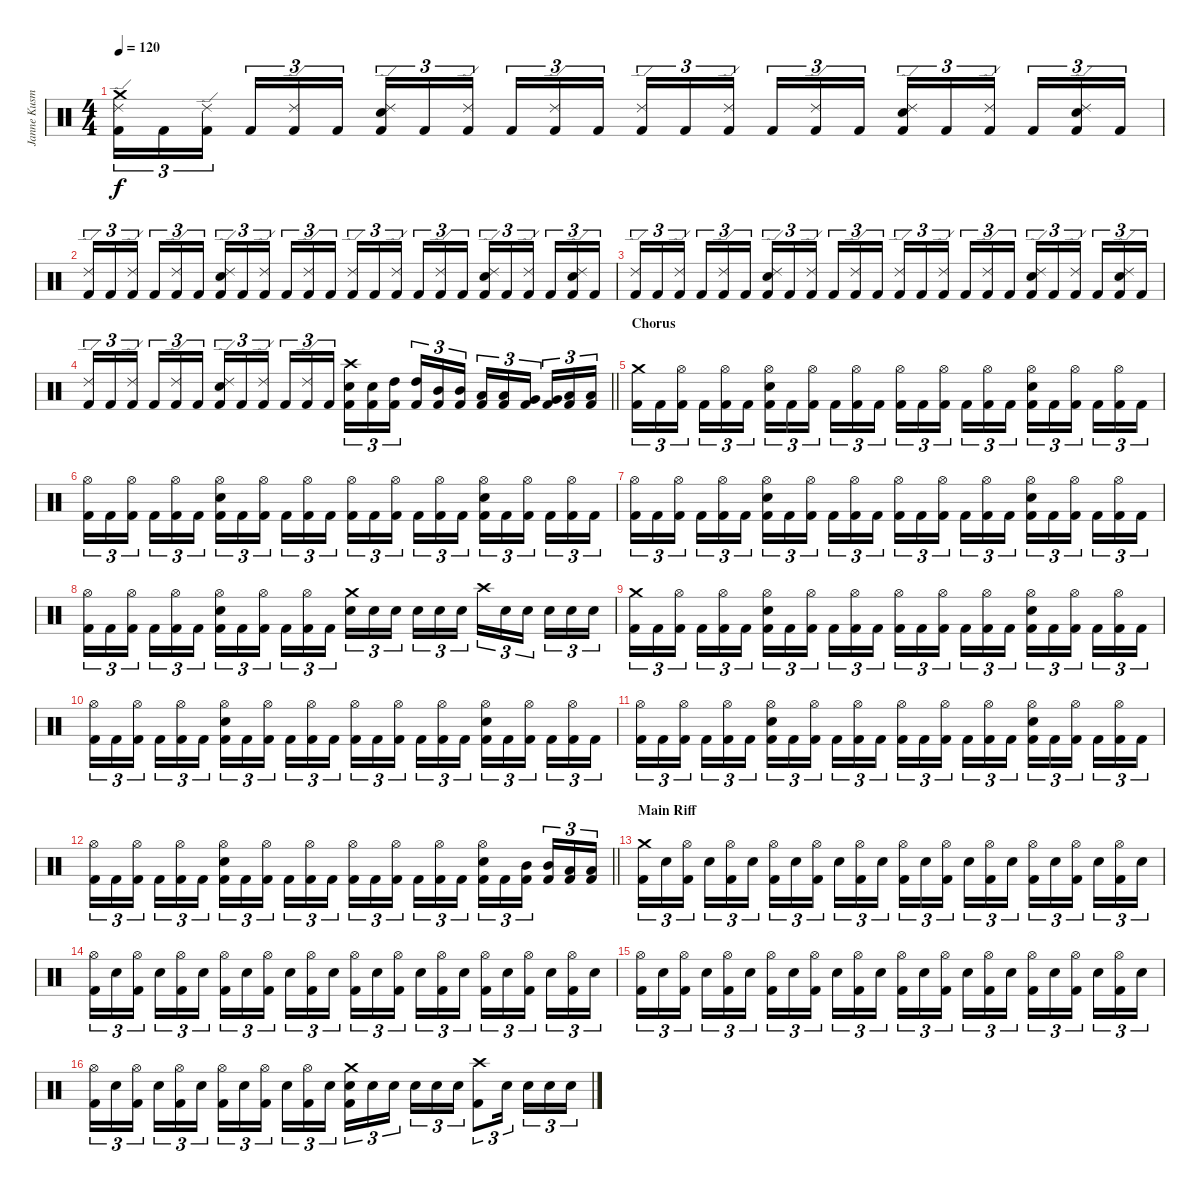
\track ("Janne Kusmin" "Janne Kusm") {instrument percussion}
\staff {score}
\articulation defaults
\ts (4 4)
\tempo 120
\clef neutral
\ks c
("Crash medium (hit)" "Ride (edge) 2" "Kick (hit) 2").16{tu (3 2) dy f} "Kick (hit) 2".16{tu (3 2)} ("Ride (edge) 2" "Kick (hit) 2").16{tu (3 2) beam splitsecondary} "Kick (hit) 2".16{tu (3 2)} ("Ride (edge) 2" "Kick (hit) 2").16{tu (3 2)} "Kick (hit) 2".16{tu (3 2)} ("Ride (edge) 2" "Snare (hit) 2" "Kick (hit) 2").16{tu (3 2)} "Kick (hit) 2".16{tu (3 2)} ("Ride (edge) 2" "Kick (hit) 2").16{tu (3 2) beam splitsecondary} "Kick (hit) 2".16{tu (3 2)} ("Ride (edge) 2" "Kick (hit) 2").16{tu (3 2)} "Kick (hit) 2".16{tu (3 2)} ("Ride (edge) 2" "Kick (hit) 2").16{tu (3 2)} "Kick (hit) 2".16{tu (3 2)} ("Ride (edge) 2" "Kick (hit) 2").16{tu (3 2) beam splitsecondary} "Kick (hit) 2".16{tu (3 2)} ("Ride (edge) 2" "Kick (hit) 2").16{tu (3 2)} "Kick (hit) 2".16{tu (3 2)} ("Ride (edge) 2" "Snare (hit) 2" "Kick (hit) 2").16{tu (3 2)} "Kick (hit) 2".16{tu (3 2)} ("Ride (edge) 2" "Kick (hit) 2").16{tu (3 2) beam splitsecondary} "Kick (hit) 2".16{tu (3 2)} ("Ride (edge) 2" "Snare (hit) 2" "Kick (hit) 2").16{tu (3 2)} "Kick (hit) 2".16{tu (3 2)} |
("Ride (edge) 2" "Kick (hit) 2").16{tu (3 2)} "Kick (hit) 2".16{tu (3 2)} ("Ride (edge) 2" "Kick (hit) 2").16{tu (3 2) beam splitsecondary} "Kick (hit) 2".16{tu (3 2)} ("Ride (edge) 2" "Kick (hit) 2").16{tu (3 2)} "Kick (hit) 2".16{tu (3 2)} ("Ride (edge) 2" "Snare (hit) 2" "Kick (hit) 2").16{tu (3 2)} "Kick (hit) 2".16{tu (3 2)} ("Ride (edge) 2" "Kick (hit) 2").16{tu (3 2) beam splitsecondary} "Kick (hit) 2".16{tu (3 2)} ("Ride (edge) 2" "Kick (hit) 2").16{tu (3 2)} "Kick (hit) 2".16{tu (3 2)} ("Ride (edge) 2" "Kick (hit) 2").16{tu (3 2)} "Kick (hit) 2".16{tu (3 2)} ("Ride (edge) 2" "Kick (hit) 2").16{tu (3 2) beam splitsecondary} "Kick (hit) 2".16{tu (3 2)} ("Ride (edge) 2" "Kick (hit) 2").16{tu (3 2)} "Kick (hit) 2".16{tu (3 2)} ("Ride (edge) 2" "Snare (hit) 2" "Kick (hit) 2").16{tu (3 2)} "Kick (hit) 2".16{tu (3 2)} ("Ride (edge) 2" "Kick (hit) 2").16{tu (3 2) beam splitsecondary} "Kick (hit) 2".16{tu (3 2)} ("Ride (edge) 2" "Snare (hit) 2" "Kick (hit) 2").16{tu (3 2)} "Kick (hit) 2".16{tu (3 2)} |
("Ride (edge) 2" "Kick (hit) 2").16{tu (3 2)} "Kick (hit) 2".16{tu (3 2)} ("Ride (edge) 2" "Kick (hit) 2").16{tu (3 2) beam splitsecondary} "Kick (hit) 2".16{tu (3 2)} ("Ride (edge) 2" "Kick (hit) 2").16{tu (3 2)} "Kick (hit) 2".16{tu (3 2)} ("Ride (edge) 2" "Snare (hit) 2" "Kick (hit) 2").16{tu (3 2)} "Kick (hit) 2".16{tu (3 2)} ("Ride (edge) 2" "Kick (hit) 2").16{tu (3 2) beam splitsecondary} "Kick (hit) 2".16{tu (3 2)} ("Ride (edge) 2" "Kick (hit) 2").16{tu (3 2)} "Kick (hit) 2".16{tu (3 2)} ("Ride (edge) 2" "Kick (hit) 2").16{tu (3 2)} "Kick (hit) 2".16{tu (3 2)} ("Ride (edge) 2" "Kick (hit) 2").16{tu (3 2) beam splitsecondary} "Kick (hit) 2".16{tu (3 2)} ("Ride (edge) 2" "Kick (hit) 2").16{tu (3 2)} "Kick (hit) 2".16{tu (3 2)} ("Ride (edge) 2" "Snare (hit) 2" "Kick (hit) 2").16{tu (3 2)} "Kick (hit) 2".16{tu (3 2)} ("Ride (edge) 2" "Kick (hit) 2").16{tu (3 2) beam splitsecondary} "Kick (hit) 2".16{tu (3 2)} ("Ride (edge) 2" "Snare (hit) 2" "Kick (hit) 2").16{tu (3 2)} "Kick (hit) 2".16{tu (3 2)} |
\barLineRight lightlight
("Ride (edge) 2" "Kick (hit) 2").16{tu (3 2)} "Kick (hit) 2".16{tu (3 2)} ("Ride (edge) 2" "Kick (hit) 2").16{tu (3 2) beam splitsecondary} "Kick (hit) 2".16{tu (3 2)} ("Ride (edge) 2" "Kick (hit) 2").16{tu (3 2)} "Kick (hit) 2".16{tu (3 2)} ("Ride (edge) 2" "Snare (hit) 2" "Kick (hit) 2").16{tu (3 2)} "Kick (hit) 2".16{tu (3 2)} ("Ride (edge) 2" "Kick (hit) 2").16{tu (3 2) beam splitsecondary} "Kick (hit) 2".16{tu (3 2)} ("Ride (edge) 2" "Kick (hit) 2").16{tu (3 2)} "Kick (hit) 2".16{tu (3 2)} ("Crash high (hit)" "Snare (hit) 2" "Kick (hit) 2").16{tu (3 2)} ("Snare (hit) 2" "Kick (hit) 2").16{tu (3 2)} ("High Tom (hit)" "Kick (hit) 2").16{tu (3 2) beam splitsecondary} ("High Tom (hit)" "Kick (hit) 2").16{tu (3 2)} ("Mid Tom (hit)" "Kick (hit) 2").16{tu (3 2)} ("Mid Tom (hit)" "Kick (hit) 2").16{tu (3 2)} ("Low Tom (hit)" "Kick (hit) 2").16{tu (3 2)} ("Low Tom (hit)" "Kick (hit) 2").16{tu (3 2)} ("Very Low Tom (hit)" "Kick (hit) 2").16{tu (3 2) beam splitsecondary} ("Very Low Tom (hit)" "Kick (hit) 2").16{tu (3 2)} ("Low Floor Tom (hit)" "Kick (hit) 2").16{tu (3 2)} ("Low Floor Tom (hit)" "Kick (hit) 2").16{tu (3 2)} |
\section ("" "Chorus")
("Crash medium (hit)" "Kick (hit) 2").16{tu (3 2)} "Kick (hit) 2".16{tu (3 2)} ("Hi-Hat (open)" "Kick (hit) 2").16{tu (3 2) beam splitsecondary} "Kick (hit) 2".16{tu (3 2)} ("Hi-Hat (open)" "Kick (hit) 2").16{tu (3 2)} "Kick (hit) 2".16{tu (3 2)} ("Hi-Hat (open)" "Snare (hit) 2" "Kick (hit) 2").16{tu (3 2)} "Kick (hit) 2".16{tu (3 2)} ("Hi-Hat (open)" "Kick (hit) 2").16{tu (3 2) beam splitsecondary} "Kick (hit) 2".16{tu (3 2)} ("Hi-Hat (open)" "Kick (hit) 2").16{tu (3 2)} "Kick (hit) 2".16{tu (3 2)} ("Hi-Hat (open)" "Kick (hit) 2").16{tu (3 2)} "Kick (hit) 2".16{tu (3 2)} ("Hi-Hat (open)" "Kick (hit) 2").16{tu (3 2) beam splitsecondary} "Kick (hit) 2".16{tu (3 2)} ("Hi-Hat (open)" "Kick (hit) 2").16{tu (3 2)} "Kick (hit) 2".16{tu (3 2)} ("Hi-Hat (open)" "Snare (hit) 2" "Kick (hit) 2").16{tu (3 2)} "Kick (hit) 2".16{tu (3 2)} ("Hi-Hat (open)" "Kick (hit) 2").16{tu (3 2) beam splitsecondary} "Kick (hit) 2".16{tu (3 2)} ("Hi-Hat (open)" "Kick (hit) 2").16{tu (3 2)} "Kick (hit) 2".16{tu (3 2)} |
("Hi-Hat (open)" "Kick (hit) 2").16{tu (3 2)} "Kick (hit) 2".16{tu (3 2)} ("Hi-Hat (open)" "Kick (hit) 2").16{tu (3 2) beam splitsecondary} "Kick (hit) 2".16{tu (3 2)} ("Hi-Hat (open)" "Kick (hit) 2").16{tu (3 2)} "Kick (hit) 2".16{tu (3 2)} ("Hi-Hat (open)" "Snare (hit) 2" "Kick (hit) 2").16{tu (3 2)} "Kick (hit) 2".16{tu (3 2)} ("Hi-Hat (open)" "Kick (hit) 2").16{tu (3 2) beam splitsecondary} "Kick (hit) 2".16{tu (3 2)} ("Hi-Hat (open)" "Kick (hit) 2").16{tu (3 2)} "Kick (hit) 2".16{tu (3 2)} ("Hi-Hat (open)" "Kick (hit) 2").16{tu (3 2)} "Kick (hit) 2".16{tu (3 2)} ("Hi-Hat (open)" "Kick (hit) 2").16{tu (3 2) beam splitsecondary} "Kick (hit) 2".16{tu (3 2)} ("Hi-Hat (open)" "Kick (hit) 2").16{tu (3 2)} "Kick (hit) 2".16{tu (3 2)} ("Hi-Hat (open)" "Snare (hit) 2" "Kick (hit) 2").16{tu (3 2)} "Kick (hit) 2".16{tu (3 2)} ("Hi-Hat (open)" "Kick (hit) 2").16{tu (3 2) beam splitsecondary} "Kick (hit) 2".16{tu (3 2)} ("Hi-Hat (open)" "Kick (hit) 2").16{tu (3 2)} "Kick (hit) 2".16{tu (3 2)} |
("Hi-Hat (open)" "Kick (hit) 2").16{tu (3 2)} "Kick (hit) 2".16{tu (3 2)} ("Hi-Hat (open)" "Kick (hit) 2").16{tu (3 2) beam splitsecondary} "Kick (hit) 2".16{tu (3 2)} ("Hi-Hat (open)" "Kick (hit) 2").16{tu (3 2)} "Kick (hit) 2".16{tu (3 2)} ("Hi-Hat (open)" "Snare (hit) 2" "Kick (hit) 2").16{tu (3 2)} "Kick (hit) 2".16{tu (3 2)} ("Hi-Hat (open)" "Kick (hit) 2").16{tu (3 2) beam splitsecondary} "Kick (hit) 2".16{tu (3 2)} ("Hi-Hat (open)" "Kick (hit) 2").16{tu (3 2)} "Kick (hit) 2".16{tu (3 2)} ("Hi-Hat (open)" "Kick (hit) 2").16{tu (3 2)} "Kick (hit) 2".16{tu (3 2)} ("Hi-Hat (open)" "Kick (hit) 2").16{tu (3 2) beam splitsecondary} "Kick (hit) 2".16{tu (3 2)} ("Hi-Hat (open)" "Kick (hit) 2").16{tu (3 2)} "Kick (hit) 2".16{tu (3 2)} ("Hi-Hat (open)" "Snare (hit) 2" "Kick (hit) 2").16{tu (3 2)} "Kick (hit) 2".16{tu (3 2)} ("Hi-Hat (open)" "Kick (hit) 2").16{tu (3 2) beam splitsecondary} "Kick (hit) 2".16{tu (3 2)} ("Hi-Hat (open)" "Kick (hit) 2").16{tu (3 2)} "Kick (hit) 2".16{tu (3 2)} |
("Hi-Hat (open)" "Kick (hit) 2").16{tu (3 2)} "Kick (hit) 2".16{tu (3 2)} ("Hi-Hat (open)" "Kick (hit) 2").16{tu (3 2) beam splitsecondary} "Kick (hit) 2".16{tu (3 2)} ("Hi-Hat (open)" "Kick (hit) 2").16{tu (3 2)} "Kick (hit) 2".16{tu (3 2)} ("Hi-Hat (open)" "Snare (hit) 2" "Kick (hit) 2").16{tu (3 2)} "Kick (hit) 2".16{tu (3 2)} ("Hi-Hat (open)" "Kick (hit) 2").16{tu (3 2) beam splitsecondary} "Kick (hit) 2".16{tu (3 2)} ("Hi-Hat (open)" "Kick (hit) 2").16{tu (3 2)} "Kick (hit) 2".16{tu (3 2)} ("Crash medium (hit)" "Snare (hit) 2").16{tu (3 2)} "Snare (hit) 2".16{tu (3 2)} "Snare (hit) 2".16{tu (3 2) beam splitsecondary} "Snare (hit) 2".16{tu (3 2)} "Snare (hit) 2".16{tu (3 2)} "Snare (hit) 2".16{tu (3 2)} "Crash high (hit)".16{tu (3 2)} "Snare (hit) 2".16{tu (3 2)} "Snare (hit) 2".16{tu (3 2) beam splitsecondary} "Snare (hit) 2".16{tu (3 2)} "Snare (hit) 2".16{tu (3 2)} "Snare (hit) 2".16{tu (3 2)} |
("Crash medium (hit)" "Kick (hit) 2").16{tu (3 2)} "Kick (hit) 2".16{tu (3 2)} ("Hi-Hat (open)" "Kick (hit) 2").16{tu (3 2) beam splitsecondary} "Kick (hit) 2".16{tu (3 2)} ("Hi-Hat (open)" "Kick (hit) 2").16{tu (3 2)} "Kick (hit) 2".16{tu (3 2)} ("Hi-Hat (open)" "Snare (hit) 2" "Kick (hit) 2").16{tu (3 2)} "Kick (hit) 2".16{tu (3 2)} ("Hi-Hat (open)" "Kick (hit) 2").16{tu (3 2) beam splitsecondary} "Kick (hit) 2".16{tu (3 2)} ("Hi-Hat (open)" "Kick (hit) 2").16{tu (3 2)} "Kick (hit) 2".16{tu (3 2)} ("Hi-Hat (open)" "Kick (hit) 2").16{tu (3 2)} "Kick (hit) 2".16{tu (3 2)} ("Hi-Hat (open)" "Kick (hit) 2").16{tu (3 2) beam splitsecondary} "Kick (hit) 2".16{tu (3 2)} ("Hi-Hat (open)" "Kick (hit) 2").16{tu (3 2)} "Kick (hit) 2".16{tu (3 2)} ("Hi-Hat (open)" "Snare (hit) 2" "Kick (hit) 2").16{tu (3 2)} "Kick (hit) 2".16{tu (3 2)} ("Hi-Hat (open)" "Kick (hit) 2").16{tu (3 2) beam splitsecondary} "Kick (hit) 2".16{tu (3 2)} ("Hi-Hat (open)" "Kick (hit) 2").16{tu (3 2)} "Kick (hit) 2".16{tu (3 2)} |
("Hi-Hat (open)" "Kick (hit) 2").16{tu (3 2)} "Kick (hit) 2".16{tu (3 2)} ("Hi-Hat (open)" "Kick (hit) 2").16{tu (3 2) beam splitsecondary} "Kick (hit) 2".16{tu (3 2)} ("Hi-Hat (open)" "Kick (hit) 2").16{tu (3 2)} "Kick (hit) 2".16{tu (3 2)} ("Hi-Hat (open)" "Snare (hit) 2" "Kick (hit) 2").16{tu (3 2)} "Kick (hit) 2".16{tu (3 2)} ("Hi-Hat (open)" "Kick (hit) 2").16{tu (3 2) beam splitsecondary} "Kick (hit) 2".16{tu (3 2)} ("Hi-Hat (open)" "Kick (hit) 2").16{tu (3 2)} "Kick (hit) 2".16{tu (3 2)} ("Hi-Hat (open)" "Kick (hit) 2").16{tu (3 2)} "Kick (hit) 2".16{tu (3 2)} ("Hi-Hat (open)" "Kick (hit) 2").16{tu (3 2) beam splitsecondary} "Kick (hit) 2".16{tu (3 2)} ("Hi-Hat (open)" "Kick (hit) 2").16{tu (3 2)} "Kick (hit) 2".16{tu (3 2)} ("Hi-Hat (open)" "Snare (hit) 2" "Kick (hit) 2").16{tu (3 2)} "Kick (hit) 2".16{tu (3 2)} ("Hi-Hat (open)" "Kick (hit) 2").16{tu (3 2) beam splitsecondary} "Kick (hit) 2".16{tu (3 2)} ("Hi-Hat (open)" "Kick (hit) 2").16{tu (3 2)} "Kick (hit) 2".16{tu (3 2)} |
("Hi-Hat (open)" "Kick (hit) 2").16{tu (3 2)} "Kick (hit) 2".16{tu (3 2)} ("Hi-Hat (open)" "Kick (hit) 2").16{tu (3 2) beam splitsecondary} "Kick (hit) 2".16{tu (3 2)} ("Hi-Hat (open)" "Kick (hit) 2").16{tu (3 2)} "Kick (hit) 2".16{tu (3 2)} ("Hi-Hat (open)" "Snare (hit) 2" "Kick (hit) 2").16{tu (3 2)} "Kick (hit) 2".16{tu (3 2)} ("Hi-Hat (open)" "Kick (hit) 2").16{tu (3 2) beam splitsecondary} "Kick (hit) 2".16{tu (3 2)} ("Hi-Hat (open)" "Kick (hit) 2").16{tu (3 2)} "Kick (hit) 2".16{tu (3 2)} ("Hi-Hat (open)" "Kick (hit) 2").16{tu (3 2)} "Kick (hit) 2".16{tu (3 2)} ("Hi-Hat (open)" "Kick (hit) 2").16{tu (3 2) beam splitsecondary} "Kick (hit) 2".16{tu (3 2)} ("Hi-Hat (open)" "Kick (hit) 2").16{tu (3 2)} "Kick (hit) 2".16{tu (3 2)} ("Hi-Hat (open)" "Snare (hit) 2" "Kick (hit) 2").16{tu (3 2)} "Kick (hit) 2".16{tu (3 2)} ("Hi-Hat (open)" "Kick (hit) 2").16{tu (3 2) beam splitsecondary} "Kick (hit) 2".16{tu (3 2)} ("Hi-Hat (open)" "Kick (hit) 2").16{tu (3 2)} "Kick (hit) 2".16{tu (3 2)} |
\barLineRight lightlight
("Hi-Hat (open)" "Kick (hit) 2").16{tu (3 2)} "Kick (hit) 2".16{tu (3 2)} ("Hi-Hat (open)" "Kick (hit) 2").16{tu (3 2) beam splitsecondary} "Kick (hit) 2".16{tu (3 2)} ("Hi-Hat (open)" "Kick (hit) 2").16{tu (3 2)} "Kick (hit) 2".16{tu (3 2)} ("Hi-Hat (open)" "Snare (hit) 2" "Kick (hit) 2").16{tu (3 2)} "Kick (hit) 2".16{tu (3 2)} ("Hi-Hat (open)" "Kick (hit) 2").16{tu (3 2) beam splitsecondary} "Kick (hit) 2".16{tu (3 2)} ("Hi-Hat (open)" "Kick (hit) 2").16{tu (3 2)} "Kick (hit) 2".16{tu (3 2)} ("Hi-Hat (open)" "Kick (hit) 2").16{tu (3 2)} "Kick (hit) 2".16{tu (3 2)} ("Hi-Hat (open)" "Kick (hit) 2").16{tu (3 2) beam splitsecondary} "Kick (hit) 2".16{tu (3 2)} ("Hi-Hat (open)" "Kick (hit) 2").16{tu (3 2)} "Kick (hit) 2".16{tu (3 2)} ("Hi-Hat (open)" "Snare (hit) 2" "Kick (hit) 2").16{tu (3 2)} "Kick (hit) 2".16{tu (3 2)} ("Mid Tom (hit)" "Kick (hit) 2").16{tu (3 2) beam splitsecondary} ("Mid Tom (hit)" "Kick (hit) 2").16{tu (3 2)} ("Low Tom (hit)" "Kick (hit) 2").16{tu (3 2)} ("Low Tom (hit)" "Kick (hit) 2").16{tu (3 2)} |
\section ("" "Main Riff")
("Crash medium (hit)" "Kick (hit) 2").16{tu (3 2)} "Snare (hit) 2".16{tu (3 2)} ("Hi-Hat (open)" "Kick (hit) 2").16{tu (3 2) beam splitsecondary} "Snare (hit) 2".16{tu (3 2)} ("Hi-Hat (open)" "Kick (hit) 2").16{tu (3 2)} "Snare (hit) 2".16{tu (3 2)} ("Hi-Hat (open)" "Kick (hit) 2").16{tu (3 2)} "Snare (hit) 2".16{tu (3 2)} ("Hi-Hat (open)" "Kick (hit) 2").16{tu (3 2) beam splitsecondary} "Snare (hit) 2".16{tu (3 2)} ("Hi-Hat (open)" "Kick (hit) 2").16{tu (3 2)} "Snare (hit) 2".16{tu (3 2)} ("Hi-Hat (open)" "Kick (hit) 2").16{tu (3 2)} "Snare (hit) 2".16{tu (3 2)} ("Hi-Hat (open)" "Kick (hit) 2").16{tu (3 2) beam splitsecondary} "Snare (hit) 2".16{tu (3 2)} ("Hi-Hat (open)" "Kick (hit) 2").16{tu (3 2)} "Snare (hit) 2".16{tu (3 2)} ("Hi-Hat (open)" "Kick (hit) 2").16{tu (3 2)} "Snare (hit) 2".16{tu (3 2)} ("Hi-Hat (open)" "Kick (hit) 2").16{tu (3 2) beam splitsecondary} "Snare (hit) 2".16{tu (3 2)} ("Hi-Hat (open)" "Kick (hit) 2").16{tu (3 2)} "Snare (hit) 2".16{tu (3 2)} |
("Hi-Hat (open)" "Kick (hit) 2").16{tu (3 2)} "Snare (hit) 2".16{tu (3 2)} ("Hi-Hat (open)" "Kick (hit) 2").16{tu (3 2) beam splitsecondary} "Snare (hit) 2".16{tu (3 2)} ("Hi-Hat (open)" "Kick (hit) 2").16{tu (3 2)} "Snare (hit) 2".16{tu (3 2)} ("Hi-Hat (open)" "Kick (hit) 2").16{tu (3 2)} "Snare (hit) 2".16{tu (3 2)} ("Hi-Hat (open)" "Kick (hit) 2").16{tu (3 2) beam splitsecondary} "Snare (hit) 2".16{tu (3 2)} ("Hi-Hat (open)" "Kick (hit) 2").16{tu (3 2)} "Snare (hit) 2".16{tu (3 2)} ("Hi-Hat (open)" "Kick (hit) 2").16{tu (3 2)} "Snare (hit) 2".16{tu (3 2)} ("Hi-Hat (open)" "Kick (hit) 2").16{tu (3 2) beam splitsecondary} "Snare (hit) 2".16{tu (3 2)} ("Hi-Hat (open)" "Kick (hit) 2").16{tu (3 2)} "Snare (hit) 2".16{tu (3 2)} ("Hi-Hat (open)" "Kick (hit) 2").16{tu (3 2)} "Snare (hit) 2".16{tu (3 2)} ("Hi-Hat (open)" "Kick (hit) 2").16{tu (3 2) beam splitsecondary} "Snare (hit) 2".16{tu (3 2)} ("Hi-Hat (open)" "Kick (hit) 2").16{tu (3 2)} "Snare (hit) 2".16{tu (3 2)} |
("Hi-Hat (open)" "Kick (hit) 2").16{tu (3 2)} "Snare (hit) 2".16{tu (3 2)} ("Hi-Hat (open)" "Kick (hit) 2").16{tu (3 2) beam splitsecondary} "Snare (hit) 2".16{tu (3 2)} ("Hi-Hat (open)" "Kick (hit) 2").16{tu (3 2)} "Snare (hit) 2".16{tu (3 2)} ("Hi-Hat (open)" "Kick (hit) 2").16{tu (3 2)} "Snare (hit) 2".16{tu (3 2)} ("Hi-Hat (open)" "Kick (hit) 2").16{tu (3 2) beam splitsecondary} "Snare (hit) 2".16{tu (3 2)} ("Hi-Hat (open)" "Kick (hit) 2").16{tu (3 2)} "Snare (hit) 2".16{tu (3 2)} ("Hi-Hat (open)" "Kick (hit) 2").16{tu (3 2)} "Snare (hit) 2".16{tu (3 2)} ("Hi-Hat (open)" "Kick (hit) 2").16{tu (3 2) beam splitsecondary} "Snare (hit) 2".16{tu (3 2)} ("Hi-Hat (open)" "Kick (hit) 2").16{tu (3 2)} "Snare (hit) 2".16{tu (3 2)} ("Hi-Hat (open)" "Kick (hit) 2").16{tu (3 2)} "Snare (hit) 2".16{tu (3 2)} ("Hi-Hat (open)" "Kick (hit) 2").16{tu (3 2) beam splitsecondary} "Snare (hit) 2".16{tu (3 2)} ("Hi-Hat (open)" "Kick (hit) 2").16{tu (3 2)} "Snare (hit) 2".16{tu (3 2)} |
("Hi-Hat (open)" "Kick (hit) 2").16{tu (3 2)} "Snare (hit) 2".16{tu (3 2)} ("Hi-Hat (open)" "Kick (hit) 2").16{tu (3 2) beam splitsecondary} "Snare (hit) 2".16{tu (3 2)} ("Hi-Hat (open)" "Kick (hit) 2").16{tu (3 2)} "Snare (hit) 2".16{tu (3 2)} ("Hi-Hat (open)" "Kick (hit) 2").16{tu (3 2)} "Snare (hit) 2".16{tu (3 2)} ("Hi-Hat (open)" "Kick (hit) 2").16{tu (3 2) beam splitsecondary} "Snare (hit) 2".16{tu (3 2)} ("Hi-Hat (open)" "Kick (hit) 2").16{tu (3 2)} "Snare (hit) 2".16{tu (3 2)} ("Crash medium (hit)" "Snare (hit) 2" "Kick (hit) 2").16{tu (3 2)} "Snare (hit) 2".16{tu (3 2)} "Snare (hit) 2".16{tu (3 2) beam splitsecondary} "Snare (hit) 2".16{tu (3 2)} "Snare (hit) 2".16{tu (3 2)} "Snare (hit) 2".16{tu (3 2)} ("Crash high (hit)" "Kick (hit) 2").8{tu (3 2)} "Snare (hit) 2".16{tu (3 2) beam splitsecondary} "Snare (hit) 2".16{tu (3 2)} "Snare (hit) 2".16{tu (3 2)} "Snare (hit) 2".16{tu (3 2)}
